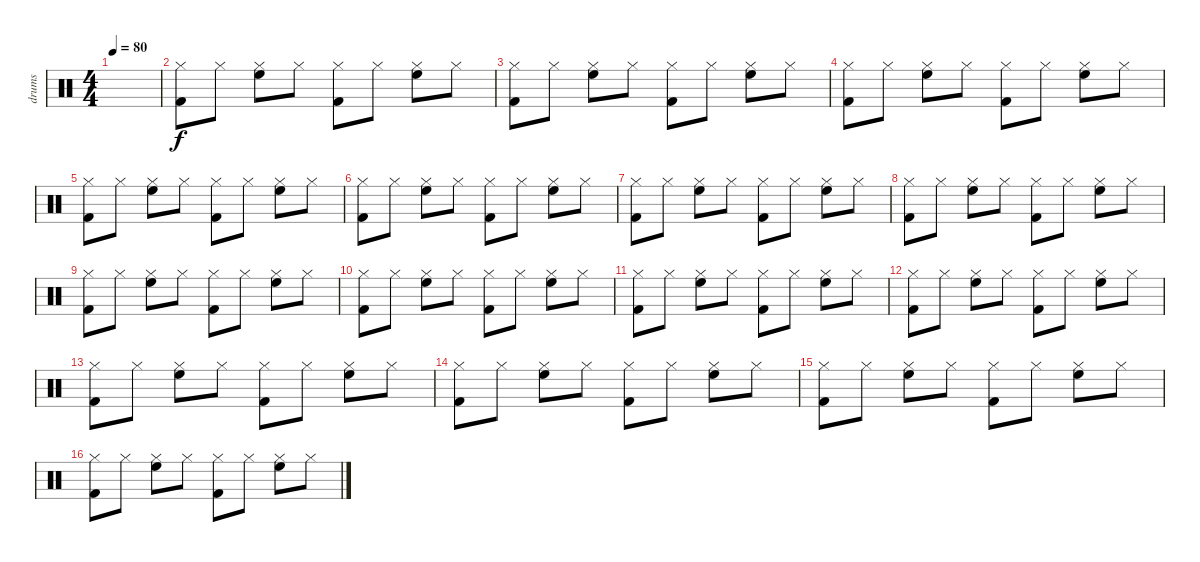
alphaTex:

\track ("drums" "drums") {instrument percussion}
\staff {score}
\articulation defaults
\ts (4 4)
\tempo 80
\clef neutral
\ks c
|
("Hi-Hat (closed)" "Kick (hit) 2").8 "Hi-Hat (closed)".8 ("Hi-Hat (closed)" "High Floor Tom (hit)").8 "Hi-Hat (closed)".8 ("Hi-Hat (closed)" "Kick (hit) 2").8 "Hi-Hat (closed)".8 ("Hi-Hat (closed)" "High Floor Tom (hit)").8 "Hi-Hat (closed)".8 |
("Hi-Hat (closed)" "Kick (hit) 2").8 "Hi-Hat (closed)".8 ("Hi-Hat (closed)" "High Floor Tom (hit)").8 "Hi-Hat (closed)".8 ("Hi-Hat (closed)" "Kick (hit) 2").8 "Hi-Hat (closed)".8 ("Hi-Hat (closed)" "High Floor Tom (hit)").8 "Hi-Hat (closed)".8 |
("Hi-Hat (closed)" "Kick (hit) 2").8 "Hi-Hat (closed)".8 ("Hi-Hat (closed)" "High Floor Tom (hit)").8 "Hi-Hat (closed)".8 ("Hi-Hat (closed)" "Kick (hit) 2").8 "Hi-Hat (closed)".8 ("Hi-Hat (closed)" "High Floor Tom (hit)").8 "Hi-Hat (closed)".8 |
("Hi-Hat (closed)" "Kick (hit) 2").8 "Hi-Hat (closed)".8 ("Hi-Hat (closed)" "High Floor Tom (hit)").8 "Hi-Hat (closed)".8 ("Hi-Hat (closed)" "Kick (hit) 2").8 "Hi-Hat (closed)".8 ("Hi-Hat (closed)" "High Floor Tom (hit)").8 "Hi-Hat (closed)".8 |
("Hi-Hat (closed)" "Kick (hit) 2").8 "Hi-Hat (closed)".8 ("Hi-Hat (closed)" "High Floor Tom (hit)").8 "Hi-Hat (closed)".8 ("Hi-Hat (closed)" "Kick (hit) 2").8 "Hi-Hat (closed)".8 ("Hi-Hat (closed)" "High Floor Tom (hit)").8 "Hi-Hat (closed)".8 |
("Hi-Hat (closed)" "Kick (hit) 2").8 "Hi-Hat (closed)".8 ("Hi-Hat (closed)" "High Floor Tom (hit)").8 "Hi-Hat (closed)".8 ("Hi-Hat (closed)" "Kick (hit) 2").8 "Hi-Hat (closed)".8 ("Hi-Hat (closed)" "High Floor Tom (hit)").8 "Hi-Hat (closed)".8 |
("Hi-Hat (closed)" "Kick (hit) 2").8 "Hi-Hat (closed)".8 ("Hi-Hat (closed)" "High Floor Tom (hit)").8 "Hi-Hat (closed)".8 ("Hi-Hat (closed)" "Kick (hit) 2").8 "Hi-Hat (closed)".8 ("Hi-Hat (closed)" "High Floor Tom (hit)").8 "Hi-Hat (closed)".8 |
("Hi-Hat (closed)" "Kick (hit) 2").8 "Hi-Hat (closed)".8 ("Hi-Hat (closed)" "High Floor Tom (hit)").8 "Hi-Hat (closed)".8 ("Hi-Hat (closed)" "Kick (hit) 2").8 "Hi-Hat (closed)".8 ("Hi-Hat (closed)" "High Floor Tom (hit)").8 "Hi-Hat (closed)".8 |
("Hi-Hat (closed)" "Kick (hit) 2").8 "Hi-Hat (closed)".8 ("Hi-Hat (closed)" "High Floor Tom (hit)").8 "Hi-Hat (closed)".8 ("Hi-Hat (closed)" "Kick (hit) 2").8 "Hi-Hat (closed)".8 ("Hi-Hat (closed)" "High Floor Tom (hit)").8 "Hi-Hat (closed)".8 |
("Hi-Hat (closed)" "Kick (hit) 2").8 "Hi-Hat (closed)".8 ("Hi-Hat (closed)" "High Floor Tom (hit)").8 "Hi-Hat (closed)".8 ("Hi-Hat (closed)" "Kick (hit) 2").8 "Hi-Hat (closed)".8 ("Hi-Hat (closed)" "High Floor Tom (hit)").8 "Hi-Hat (closed)".8 |
("Hi-Hat (closed)" "Kick (hit) 2").8 "Hi-Hat (closed)".8 ("Hi-Hat (closed)" "High Floor Tom (hit)").8 "Hi-Hat (closed)".8 ("Hi-Hat (closed)" "Kick (hit) 2").8 "Hi-Hat (closed)".8 ("Hi-Hat (closed)" "High Floor Tom (hit)").8 "Hi-Hat (closed)".8 |
("Hi-Hat (closed)" "Kick (hit) 2").8 "Hi-Hat (closed)".8 ("Hi-Hat (closed)" "High Floor Tom (hit)").8 "Hi-Hat (closed)".8 ("Hi-Hat (closed)" "Kick (hit) 2").8 "Hi-Hat (closed)".8 ("Hi-Hat (closed)" "High Floor Tom (hit)").8 "Hi-Hat (closed)".8 |
("Hi-Hat (closed)" "Kick (hit) 2").8 "Hi-Hat (closed)".8 ("Hi-Hat (closed)" "High Floor Tom (hit)").8 "Hi-Hat (closed)".8 ("Hi-Hat (closed)" "Kick (hit) 2").8 "Hi-Hat (closed)".8 ("Hi-Hat (closed)" "High Floor Tom (hit)").8 "Hi-Hat (closed)".8 |
("Hi-Hat (closed)" "Kick (hit) 2").8 "Hi-Hat (closed)".8 ("Hi-Hat (closed)" "High Floor Tom (hit)").8 "Hi-Hat (closed)".8 ("Hi-Hat (closed)" "Kick (hit) 2").8 "Hi-Hat (closed)".8 ("Hi-Hat (closed)" "High Floor Tom (hit)").8 "Hi-Hat (closed)".8 |
("Hi-Hat (closed)" "Kick (hit) 2").8 "Hi-Hat (closed)".8 ("Hi-Hat (closed)" "High Floor Tom (hit)").8 "Hi-Hat (closed)".8 ("Hi-Hat (closed)" "Kick (hit) 2").8 "Hi-Hat (closed)".8 ("Hi-Hat (closed)" "High Floor Tom (hit)").8 "Hi-Hat (closed)".8
